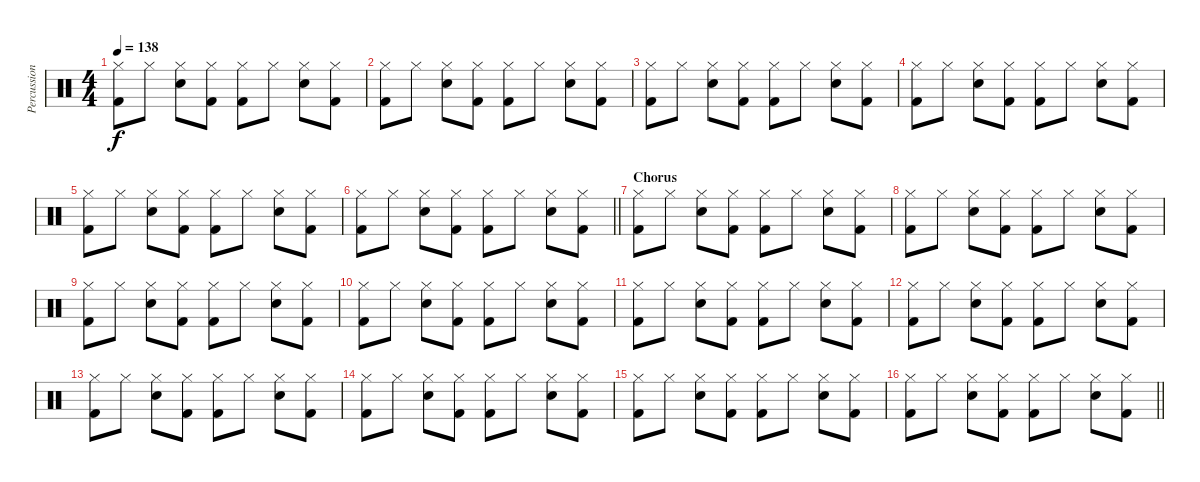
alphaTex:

\track ("Percussion" "Percussion") {instrument percussion}
\staff {score}
\articulation defaults
\ts (4 4)
\tempo 138
\clef neutral
\ks c
("Hi-Hat (closed)" "Kick (hit) 2").8{dy f} "Hi-Hat (closed)".8 ("Hi-Hat (closed)" "Electric Snare (hit)").8 ("Hi-Hat (closed)" "Kick (hit) 2").8 ("Hi-Hat (closed)" "Kick (hit) 2").8 "Hi-Hat (closed)".8 ("Hi-Hat (closed)" "Electric Snare (hit)").8 ("Hi-Hat (closed)" "Kick (hit) 2").8 |
("Hi-Hat (closed)" "Kick (hit) 2").8 "Hi-Hat (closed)".8 ("Hi-Hat (closed)" "Electric Snare (hit)").8 ("Hi-Hat (closed)" "Kick (hit) 2").8 ("Hi-Hat (closed)" "Kick (hit) 2").8 "Hi-Hat (closed)".8 ("Hi-Hat (closed)" "Electric Snare (hit)").8 ("Hi-Hat (closed)" "Kick (hit) 2").8 |
("Hi-Hat (closed)" "Kick (hit) 2").8 "Hi-Hat (closed)".8 ("Hi-Hat (closed)" "Electric Snare (hit)").8 ("Hi-Hat (closed)" "Kick (hit) 2").8 ("Hi-Hat (closed)" "Kick (hit) 2").8 "Hi-Hat (closed)".8 ("Hi-Hat (closed)" "Electric Snare (hit)").8 ("Hi-Hat (closed)" "Kick (hit) 2").8 |
("Hi-Hat (closed)" "Kick (hit) 2").8 "Hi-Hat (closed)".8 ("Hi-Hat (closed)" "Electric Snare (hit)").8 ("Hi-Hat (closed)" "Kick (hit) 2").8 ("Hi-Hat (closed)" "Kick (hit) 2").8 "Hi-Hat (closed)".8 ("Hi-Hat (closed)" "Electric Snare (hit)").8 ("Hi-Hat (closed)" "Kick (hit) 2").8 |
("Hi-Hat (closed)" "Kick (hit) 2").8 "Hi-Hat (closed)".8 ("Hi-Hat (closed)" "Electric Snare (hit)").8 ("Hi-Hat (closed)" "Kick (hit) 2").8 ("Hi-Hat (closed)" "Kick (hit) 2").8 "Hi-Hat (closed)".8 ("Hi-Hat (closed)" "Electric Snare (hit)").8 ("Hi-Hat (closed)" "Kick (hit) 2").8 |
\barLineRight lightlight
("Hi-Hat (closed)" "Kick (hit) 2").8 "Hi-Hat (closed)".8 ("Hi-Hat (closed)" "Electric Snare (hit)").8 ("Hi-Hat (closed)" "Kick (hit) 2").8 ("Hi-Hat (closed)" "Kick (hit) 2").8 "Hi-Hat (closed)".8 ("Hi-Hat (closed)" "Electric Snare (hit)").8 ("Hi-Hat (closed)" "Kick (hit) 2").8 |
\section ("" "Chorus")
("Hi-Hat (closed)" "Kick (hit) 2").8 "Hi-Hat (closed)".8 ("Hi-Hat (closed)" "Electric Snare (hit)").8 ("Hi-Hat (closed)" "Kick (hit) 2").8 ("Hi-Hat (closed)" "Kick (hit) 2").8 "Hi-Hat (closed)".8 ("Hi-Hat (closed)" "Electric Snare (hit)").8 ("Hi-Hat (closed)" "Kick (hit) 2").8 |
("Hi-Hat (closed)" "Kick (hit) 2").8 "Hi-Hat (closed)".8 ("Hi-Hat (closed)" "Electric Snare (hit)").8 ("Hi-Hat (closed)" "Kick (hit) 2").8 ("Hi-Hat (closed)" "Kick (hit) 2").8 "Hi-Hat (closed)".8 ("Hi-Hat (closed)" "Electric Snare (hit)").8 ("Hi-Hat (closed)" "Kick (hit) 2").8 |
("Hi-Hat (closed)" "Kick (hit) 2").8 "Hi-Hat (closed)".8 ("Hi-Hat (closed)" "Electric Snare (hit)").8 ("Hi-Hat (closed)" "Kick (hit) 2").8 ("Hi-Hat (closed)" "Kick (hit) 2").8 "Hi-Hat (closed)".8 ("Hi-Hat (closed)" "Electric Snare (hit)").8 ("Hi-Hat (closed)" "Kick (hit) 2").8 |
("Hi-Hat (closed)" "Kick (hit) 2").8 "Hi-Hat (closed)".8 ("Hi-Hat (closed)" "Electric Snare (hit)").8 ("Hi-Hat (closed)" "Kick (hit) 2").8 ("Hi-Hat (closed)" "Kick (hit) 2").8 "Hi-Hat (closed)".8 ("Hi-Hat (closed)" "Electric Snare (hit)").8 ("Hi-Hat (closed)" "Kick (hit) 2").8 |
("Hi-Hat (closed)" "Kick (hit) 2").8 "Hi-Hat (closed)".8 ("Hi-Hat (closed)" "Electric Snare (hit)").8 ("Hi-Hat (closed)" "Kick (hit) 2").8 ("Hi-Hat (closed)" "Kick (hit) 2").8 "Hi-Hat (closed)".8 ("Hi-Hat (closed)" "Electric Snare (hit)").8 ("Hi-Hat (closed)" "Kick (hit) 2").8 |
("Hi-Hat (closed)" "Kick (hit) 2").8 "Hi-Hat (closed)".8 ("Hi-Hat (closed)" "Electric Snare (hit)").8 ("Hi-Hat (closed)" "Kick (hit) 2").8 ("Hi-Hat (closed)" "Kick (hit) 2").8 "Hi-Hat (closed)".8 ("Hi-Hat (closed)" "Electric Snare (hit)").8 ("Hi-Hat (closed)" "Kick (hit) 2").8 |
("Hi-Hat (closed)" "Kick (hit) 2").8 "Hi-Hat (closed)".8 ("Hi-Hat (closed)" "Electric Snare (hit)").8 ("Hi-Hat (closed)" "Kick (hit) 2").8 ("Hi-Hat (closed)" "Kick (hit) 2").8 "Hi-Hat (closed)".8 ("Hi-Hat (closed)" "Electric Snare (hit)").8 ("Hi-Hat (closed)" "Kick (hit) 2").8 |
("Hi-Hat (closed)" "Kick (hit) 2").8 "Hi-Hat (closed)".8 ("Hi-Hat (closed)" "Electric Snare (hit)").8 ("Hi-Hat (closed)" "Kick (hit) 2").8 ("Hi-Hat (closed)" "Kick (hit) 2").8 "Hi-Hat (closed)".8 ("Hi-Hat (closed)" "Electric Snare (hit)").8 ("Hi-Hat (closed)" "Kick (hit) 2").8 |
("Hi-Hat (closed)" "Kick (hit) 2").8 "Hi-Hat (closed)".8 ("Hi-Hat (closed)" "Electric Snare (hit)").8 ("Hi-Hat (closed)" "Kick (hit) 2").8 ("Hi-Hat (closed)" "Kick (hit) 2").8 "Hi-Hat (closed)".8 ("Hi-Hat (closed)" "Electric Snare (hit)").8 ("Hi-Hat (closed)" "Kick (hit) 2").8 |
\barLineRight lightlight
("Hi-Hat (closed)" "Kick (hit) 2").8 "Hi-Hat (closed)".8 ("Hi-Hat (closed)" "Electric Snare (hit)").8 ("Hi-Hat (closed)" "Kick (hit) 2").8 ("Hi-Hat (closed)" "Kick (hit) 2").8 "Hi-Hat (closed)".8 ("Hi-Hat (closed)" "Electric Snare (hit)").8 ("Hi-Hat (closed)" "Kick (hit) 2").8
